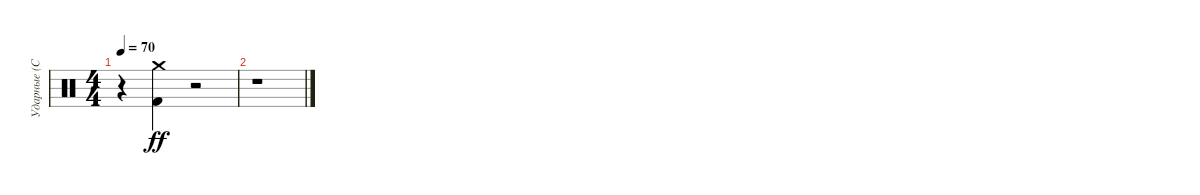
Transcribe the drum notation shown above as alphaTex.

\track ("Ударные (С.Кавагое)" "Ударные (С") {instrument percussion}
\staff {score}
\articulation defaults
\ts (4 4)
\tempo 70
\clef neutral
\ks c
r.4{dy ff} ("Crash medium (hit)" "Kick (hit) 2").4 r.2 |
r.1
